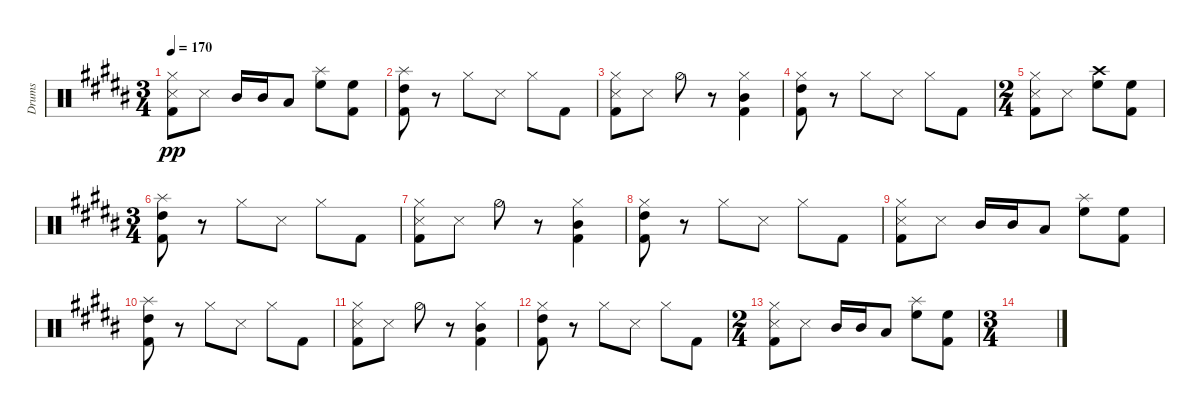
\defaultSystemsLayout 4
\bracketExtendMode groupsimilarinstruments
\otherSystemsTrackNameOrientation horizontal
\track ("Drumkit" "Drums") {instrument percussion}
\staff {score}
\articulation defaults
\ts (3 4)
\tempo 170
\clef neutral
\ks b
("Hi-Hat (closed)"{acc bb} "Snare (side stick) 3"{acc bb} "Kick (hit) 2"{acc bb}).8{dy pp beam Down} "Snare (side stick) 3"{acc bb}.8{beam Down} "Mid Tom (hit)"{acc bb}.16{beam Up} "Mid Tom (hit)"{acc bb}.16{beam Up} "Low Tom (hit)"{acc bb}.8{beam Up} ("High Floor Tom (hit)"{acc bb} "Splash (hit)"{acc bb}).8{beam Down} ("High Floor Tom (hit)"{acc bb} "Kick (hit) 2"{acc bb}).8{beam Down} |
("High Tom (hit)"{acc bb} "Kick (hit) 2"{acc bb} "Splash (hit)"{acc bb}).8{beam Down} r.8{beam Down} "Hi-Hat (closed)"{acc bb}.8{beam Down} "Snare (side stick) 3"{acc bb}.8{beam Down} "Hi-Hat (closed)"{acc bb}.8{beam Down} "Kick (hit) 2"{acc bb}.8{beam Down} |
("Hi-Hat (closed)"{acc bb} "Snare (side stick) 3"{acc bb} "Kick (hit) 2"{acc bb}).8{beam Down} "Snare (side stick) 3"{acc bb}.8{beam Down} "Hi-Hat (half)"{acc bb}.8{beam Down} r.8{beam Down} ("Hi-Hat (closed)"{acc bb} "Kick (hit) 2"{acc bb} "Mid Tom (hit)"{acc bb}).4{beam Down} |
("High Tom (hit)"{acc bb} "Kick (hit) 2"{acc bb} "Hi-Hat (closed)"{acc bb}).8{beam Down} r.8{beam Down} "Hi-Hat (closed)"{acc bb}.8{beam Down} "Snare (side stick) 3"{acc bb}.8{beam Down} "Hi-Hat (closed)"{acc bb}.8{beam Down} "Kick (hit) 2"{acc bb}.8{beam Down} |
\ts (2 4)
("Hi-Hat (closed)"{acc bb} "Snare (side stick) 3"{acc bb} "Kick (hit) 2"{acc bb}).8{beam Down} "Snare (side stick) 3"{acc bb}.8{beam Down} ("High Floor Tom (hit)"{acc bb} "Crash high (hit)"{acc bb}).8{beam Down} ("High Floor Tom (hit)"{acc bb} "Kick (hit) 2"{acc bb}).8{beam Down} |
\ts (3 4)
("High Tom (hit)"{acc bb} "Kick (hit) 2"{acc bb} "Splash (hit)"{acc bb}).8{beam Down} r.8{beam Down} "Hi-Hat (closed)"{acc bb}.8{beam Down} "Snare (side stick) 3"{acc bb}.8{beam Down} "Hi-Hat (closed)"{acc bb}.8{beam Down} "Kick (hit) 2"{acc bb}.8{beam Down} |
("Hi-Hat (closed)"{acc bb} "Snare (side stick) 3"{acc bb} "Kick (hit) 2"{acc bb}).8{beam Down} "Snare (side stick) 3"{acc bb}.8{beam Down} "Hi-Hat (half)"{acc bb}.8{beam Down} r.8{beam Down} ("Hi-Hat (closed)"{acc bb} "Kick (hit) 2"{acc bb} "Mid Tom (hit)"{acc bb}).4{beam Down} |
("High Tom (hit)"{acc bb} "Kick (hit) 2"{acc bb} "Hi-Hat (closed)"{acc bb}).8{beam Down} r.8{beam Down} "Hi-Hat (closed)"{acc bb}.8{beam Down} "Snare (side stick) 3"{acc bb}.8{beam Down} "Hi-Hat (closed)"{acc bb}.8{beam Down} "Kick (hit) 2"{acc bb}.8{beam Down} |
("Hi-Hat (closed)"{acc bb} "Snare (side stick) 3"{acc bb} "Kick (hit) 2"{acc bb}).8{beam Down} "Snare (side stick) 3"{acc bb}.8{beam Down} "Mid Tom (hit)"{acc bb}.16{beam Up} "Mid Tom (hit)"{acc bb}.16{beam Up} "Low Tom (hit)"{acc bb}.8{beam Up} ("High Floor Tom (hit)"{acc bb} "Splash (hit)"{acc bb}).8{beam Down} ("High Floor Tom (hit)"{acc bb} "Kick (hit) 2"{acc bb}).8{beam Down} |
("High Tom (hit)"{acc bb} "Kick (hit) 2"{acc bb} "Splash (hit)"{acc bb}).8{beam Down} r.8{beam Down} "Hi-Hat (closed)"{acc bb}.8{beam Down} "Snare (side stick) 3"{acc bb}.8{beam Down} "Hi-Hat (closed)"{acc bb}.8{beam Down} "Kick (hit) 2"{acc bb}.8{beam Down} |
("Hi-Hat (closed)"{acc bb} "Snare (side stick) 3"{acc bb} "Kick (hit) 2"{acc bb}).8{beam Down} "Snare (side stick) 3"{acc bb}.8{beam Down} "Hi-Hat (half)"{acc bb}.8{beam Down} r.8{beam Down} ("Hi-Hat (closed)"{acc bb} "Kick (hit) 2"{acc bb} "Mid Tom (hit)"{acc bb}).4{beam Down} |
("High Tom (hit)"{acc bb} "Kick (hit) 2"{acc bb} "Hi-Hat (closed)"{acc bb}).8{beam Down} r.8{beam Down} "Hi-Hat (closed)"{acc bb}.8{beam Down} "Snare (side stick) 3"{acc bb}.8{beam Down} "Hi-Hat (closed)"{acc bb}.8{beam Down} "Kick (hit) 2"{acc bb}.8{beam Down} |
\ts (2 4)
("Hi-Hat (closed)"{acc bb} "Snare (side stick) 3"{acc bb} "Kick (hit) 2"{acc bb}).8{beam Down} "Snare (side stick) 3"{acc bb}.8{beam Down} "Mid Tom (hit)"{acc bb}.16{beam Up} "Mid Tom (hit)"{acc bb}.16{beam Up} "Low Tom (hit)"{acc bb}.8{beam Up} ("High Floor Tom (hit)"{acc bb} "Splash (hit)"{acc bb}).8{beam Down} ("High Floor Tom (hit)"{acc bb} "Kick (hit) 2"{acc bb}).8{beam Down} |
\ts (3 4)
